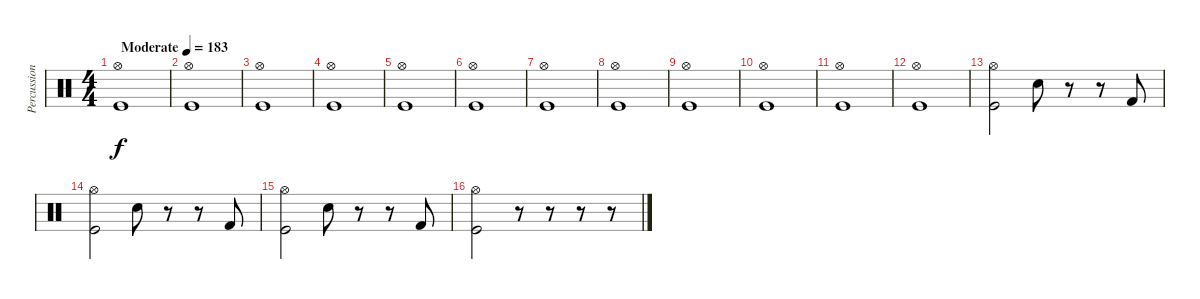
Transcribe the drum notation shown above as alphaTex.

\track ("Percussion" "Percussion") {instrument percussion}
\staff {score}
\articulation defaults
\ts (4 4)
\tempo (183 "Moderate")
\clef neutral
\ks c
("Kick (hit)" "Hi-Hat (open)").1{dy f} |
("Kick (hit)" "Hi-Hat (open)").1 |
("Kick (hit)" "Hi-Hat (open)").1 |
("Kick (hit)" "Hi-Hat (open)").1 |
("Kick (hit)" "Hi-Hat (open)").1 |
("Kick (hit)" "Hi-Hat (open)").1 |
("Kick (hit)" "Hi-Hat (open)").1 |
("Kick (hit)" "Hi-Hat (open)").1 |
("Kick (hit)" "Hi-Hat (open)").1 |
("Kick (hit)" "Hi-Hat (open)").1 |
("Kick (hit)" "Hi-Hat (open)").1 |
("Kick (hit)" "Hi-Hat (open)").1 |
("Kick (hit)" "Hi-Hat (open)").2 "Hand Clap (hit)".8 r.8 r.8 "Kick (hit) 2".8 |
("Kick (hit)" "Hi-Hat (open)").2 "Hand Clap (hit)".8 r.8 r.8 "Kick (hit) 2".8 |
("Kick (hit)" "Hi-Hat (open)").2 "Hand Clap (hit)".8 r.8 r.8 "Kick (hit) 2".8 |
("Kick (hit)" "Hi-Hat (open)").2 r.8 r.8 r.8 r.8
